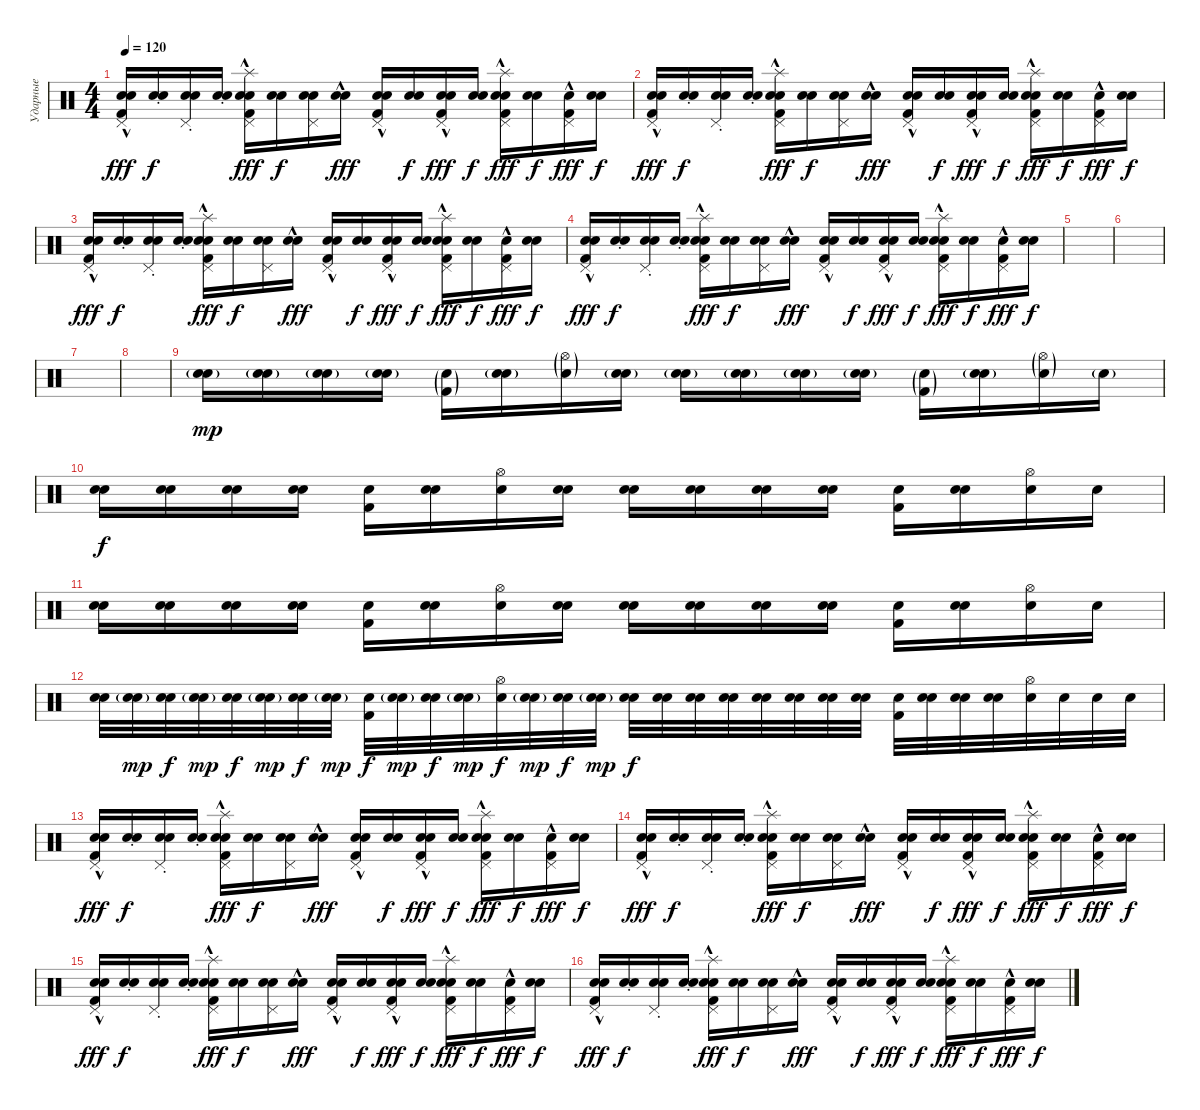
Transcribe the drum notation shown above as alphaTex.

\track ("Ударные" "Ударные") {instrument percussion}
\staff {score}
\articulation defaults
\ts (4 4)
\tempo 120
\clef neutral
\ks c
("Electric Snare (hit)" "Pedal Hi-Hat (hit)"{hac} "Snare (hit) 2"{hac} "Kick (hit) 2"{hac}).16{dy fff} ("Electric Snare (hit)"{st} "Snare (hit)").16{dy f} ("Electric Snare (hit)"{st} "Pedal Hi-Hat (hit)" "Snare (hit)").16 ("Electric Snare (hit)"{st} "Snare (hit)").16 ("Electric Snare (hit)" "Splash (hit)" "Pedal Hi-Hat (hit)" "Snare (hit) 2"{hac} "Kick (hit) 2"{hac}).16{dy fff} ("Electric Snare (hit)" "Snare (hit)").16{dy f} ("Electric Snare (hit)" "Pedal Hi-Hat (hit)" "Snare (hit)").16 ("Electric Snare (hit)" "Snare (hit)"{hac}).16{dy fff} ("Electric Snare (hit)" "Pedal Hi-Hat (hit)" "Snare (hit) 2"{hac} "Kick (hit) 2"{hac}).16 ("Electric Snare (hit)" "Snare (hit)").16{dy f} ("Electric Snare (hit)" "Electric Snare (hit)" "Pedal Hi-Hat (hit)" "Kick (hit) 2"{hac}).16{dy fff} ("Electric Snare (hit)" "Snare (hit)").16{dy f} ("Electric Snare (hit)" "Splash (hit)"{hac} "Pedal Hi-Hat (hit)" "Snare (hit) 2"{hac} "Kick (hit) 2"{hac}).16{dy fff} ("Electric Snare (hit)" "Snare (hit)").16{dy f} ("Electric Snare (hit)" "Pedal Hi-Hat (hit)"{hac} "Kick (hit) 2"{hac}).16{dy fff} ("Electric Snare (hit)" "Snare (hit)").16{dy f} |
("Electric Snare (hit)" "Pedal Hi-Hat (hit)"{hac} "Snare (hit) 2"{hac} "Kick (hit) 2"{hac}).16{dy fff} ("Electric Snare (hit)"{st} "Snare (hit)").16{dy f} ("Electric Snare (hit)"{st} "Pedal Hi-Hat (hit)" "Snare (hit)").16 ("Electric Snare (hit)"{st} "Snare (hit)").16 ("Electric Snare (hit)" "Splash (hit)" "Pedal Hi-Hat (hit)" "Snare (hit) 2"{hac} "Kick (hit) 2"{hac}).16{dy fff} ("Electric Snare (hit)" "Snare (hit)").16{dy f} ("Electric Snare (hit)" "Pedal Hi-Hat (hit)" "Snare (hit)").16 ("Electric Snare (hit)" "Snare (hit)"{hac}).16{dy fff} ("Electric Snare (hit)" "Pedal Hi-Hat (hit)"{hac} "Snare (hit) 2"{hac} "Kick (hit) 2"{hac}).16 ("Electric Snare (hit)" "Snare (hit)").16{dy f} ("Electric Snare (hit)" "Electric Snare (hit)"{hac} "Pedal Hi-Hat (hit)"{hac} "Kick (hit) 2"{hac}).16{dy fff} ("Electric Snare (hit)" "Snare (hit)").16{dy f} ("Electric Snare (hit)" "Splash (hit)" "Pedal Hi-Hat (hit)"{hac} "Snare (hit) 2"{hac} "Kick (hit) 2"{hac}).16{dy fff} ("Electric Snare (hit)" "Snare (hit)").16{dy f} ("Electric Snare (hit)" "Pedal Hi-Hat (hit)"{hac} "Kick (hit) 2"{hac}).16{dy fff} ("Electric Snare (hit)" "Snare (hit)").16{dy f} |
("Electric Snare (hit)" "Pedal Hi-Hat (hit)"{hac} "Snare (hit) 2"{hac} "Kick (hit) 2"{hac}).16{dy fff} ("Electric Snare (hit)"{st} "Snare (hit)").16{dy f} ("Electric Snare (hit)"{st} "Pedal Hi-Hat (hit)" "Snare (hit)").16 ("Electric Snare (hit)"{st} "Snare (hit)").16 ("Electric Snare (hit)" "Splash (hit)" "Pedal Hi-Hat (hit)" "Snare (hit) 2"{hac} "Kick (hit) 2"{hac}).16{dy fff} ("Electric Snare (hit)" "Snare (hit)").16{dy f} ("Electric Snare (hit)" "Pedal Hi-Hat (hit)" "Snare (hit)").16 ("Electric Snare (hit)" "Snare (hit)"{hac}).16{dy fff} ("Electric Snare (hit)" "Pedal Hi-Hat (hit)" "Snare (hit) 2"{hac} "Kick (hit) 2"{hac}).16 ("Electric Snare (hit)" "Snare (hit)").16{dy f} ("Electric Snare (hit)" "Electric Snare (hit)" "Pedal Hi-Hat (hit)" "Kick (hit) 2"{hac}).16{dy fff} ("Electric Snare (hit)" "Snare (hit)").16{dy f} ("Electric Snare (hit)" "Splash (hit)"{hac} "Pedal Hi-Hat (hit)" "Snare (hit) 2"{hac} "Kick (hit) 2"{hac}).16{dy fff} ("Electric Snare (hit)" "Snare (hit)").16{dy f} ("Electric Snare (hit)" "Pedal Hi-Hat (hit)"{hac} "Kick (hit) 2"{hac}).16{dy fff} ("Electric Snare (hit)" "Snare (hit)").16{dy f} |
("Electric Snare (hit)" "Pedal Hi-Hat (hit)"{hac} "Snare (hit) 2"{hac} "Kick (hit) 2"{hac}).16{dy fff} ("Electric Snare (hit)"{st} "Snare (hit)").16{dy f} ("Electric Snare (hit)"{st} "Pedal Hi-Hat (hit)" "Snare (hit)").16 ("Electric Snare (hit)"{st} "Snare (hit)").16 ("Electric Snare (hit)" "Splash (hit)" "Pedal Hi-Hat (hit)" "Snare (hit) 2"{hac} "Kick (hit) 2"{hac}).16{dy fff} ("Electric Snare (hit)" "Snare (hit)").16{dy f} ("Electric Snare (hit)" "Pedal Hi-Hat (hit)" "Snare (hit)").16 ("Electric Snare (hit)" "Snare (hit)"{hac}).16{dy fff} ("Electric Snare (hit)" "Pedal Hi-Hat (hit)"{hac} "Snare (hit) 2"{hac} "Kick (hit) 2"{hac}).16 ("Electric Snare (hit)" "Snare (hit)").16{dy f} ("Electric Snare (hit)" "Electric Snare (hit)"{hac} "Pedal Hi-Hat (hit)"{hac} "Kick (hit) 2"{hac}).16{dy fff} ("Electric Snare (hit)" "Snare (hit)").16{dy f} ("Electric Snare (hit)" "Splash (hit)" "Pedal Hi-Hat (hit)"{hac} "Snare (hit) 2"{hac} "Kick (hit) 2"{hac}).16{dy fff} ("Electric Snare (hit)" "Snare (hit)").16{dy f} ("Electric Snare (hit)" "Pedal Hi-Hat (hit)"{hac} "Kick (hit) 2"{hac}).16{dy fff} ("Electric Snare (hit)" "Snare (hit)").16{dy f} |
|
|
|
|
("Electric Snare (hit)"{g} "Snare (hit) 2"{g}).16{dy mp} ("Electric Snare (hit)"{g} "Snare (hit)"{g}).16 ("Electric Snare (hit)"{g} "Snare (hit)"{g}).16 ("Electric Snare (hit)"{g} "Snare (hit)"{g}).16 ("Electric Snare (hit)"{g} "Kick (hit) 2"{g}).16 ("Electric Snare (hit)"{g} "Snare (hit)"{g}).16 ("Electric Snare (hit)"{g} "Hi-Hat (open)"{g}).16 ("Electric Snare (hit)"{g} "Snare (hit)"{g}).16 ("Electric Snare (hit)"{g} "Snare (hit) 2"{g}).16 ("Electric Snare (hit)"{g} "Snare (hit)"{g}).16 ("Electric Snare (hit)"{g} "Snare (hit)"{g}).16 ("Electric Snare (hit)"{g} "Snare (hit)"{g}).16 ("Electric Snare (hit)"{g} "Kick (hit) 2"{g}).16 ("Electric Snare (hit)"{g} "Snare (hit)"{g}).16 ("Electric Snare (hit)"{g} "Hi-Hat (open)"{g}).16 "Electric Snare (hit)"{g}.16 |
("Electric Snare (hit)" "Snare (hit) 2").16{dy f} ("Electric Snare (hit)" "Snare (hit)").16 ("Electric Snare (hit)" "Snare (hit)").16 ("Electric Snare (hit)" "Snare (hit)").16 ("Electric Snare (hit)" "Kick (hit) 2").16 ("Electric Snare (hit)" "Snare (hit)").16 ("Electric Snare (hit)" "Hi-Hat (open)").16 ("Electric Snare (hit)" "Snare (hit)").16 ("Electric Snare (hit)" "Snare (hit) 2").16 ("Electric Snare (hit)" "Snare (hit)").16 ("Electric Snare (hit)" "Snare (hit)").16 ("Electric Snare (hit)" "Snare (hit)").16 ("Electric Snare (hit)" "Kick (hit) 2").16 ("Electric Snare (hit)" "Snare (hit)").16 ("Electric Snare (hit)" "Hi-Hat (open)").16 "Electric Snare (hit)".16 |
("Electric Snare (hit)" "Snare (hit) 2").16 ("Electric Snare (hit)" "Snare (hit)").16 ("Electric Snare (hit)" "Snare (hit)").16 ("Electric Snare (hit)" "Snare (hit)").16 ("Electric Snare (hit)" "Kick (hit) 2").16 ("Electric Snare (hit)" "Snare (hit)").16 ("Electric Snare (hit)" "Hi-Hat (open)").16 ("Electric Snare (hit)" "Snare (hit)").16 ("Electric Snare (hit)" "Snare (hit) 2").16 ("Electric Snare (hit)" "Snare (hit)").16 ("Electric Snare (hit)" "Snare (hit)").16 ("Electric Snare (hit)" "Snare (hit)").16 ("Electric Snare (hit)" "Kick (hit) 2").16 ("Electric Snare (hit)" "Snare (hit)").16 ("Electric Snare (hit)" "Hi-Hat (open)").16 "Electric Snare (hit)".16 |
("Electric Snare (hit)" "Snare (hit) 2").32 ("Electric Snare (hit)"{g} "Snare (hit)").32{dy mp} ("Electric Snare (hit)" "Snare (hit)").32{dy f} ("Electric Snare (hit)"{g} "Snare (hit)").32{dy mp} ("Electric Snare (hit)" "Snare (hit)").32{dy f} ("Electric Snare (hit)"{g} "Snare (hit)").32{dy mp} ("Electric Snare (hit)" "Snare (hit)").32{dy f} ("Electric Snare (hit)"{g} "Snare (hit)").32{dy mp} ("Electric Snare (hit)" "Kick (hit) 2").32{dy f} ("Electric Snare (hit)"{g} "Snare (hit)").32{dy mp} ("Electric Snare (hit)" "Snare (hit)").32{dy f} ("Electric Snare (hit)"{g} "Snare (hit)").32{dy mp} ("Electric Snare (hit)" "Hi-Hat (open)").32{dy f} ("Electric Snare (hit)"{g} "Snare (hit)").32{dy mp} ("Electric Snare (hit)" "Snare (hit)").32{dy f} ("Electric Snare (hit)"{g} "Snare (hit)").32{dy mp} ("Electric Snare (hit)" "Snare (hit) 2").32{dy f} ("Electric Snare (hit)" "Snare (hit)").32 ("Electric Snare (hit)" "Snare (hit)").32 ("Electric Snare (hit)" "Snare (hit)").32 ("Electric Snare (hit)" "Snare (hit)").32 ("Electric Snare (hit)" "Snare (hit)").32 ("Electric Snare (hit)" "Snare (hit)").32 ("Electric Snare (hit)" "Snare (hit)").32 ("Electric Snare (hit)" "Kick (hit) 2").32 ("Electric Snare (hit)" "Snare (hit)").32 ("Electric Snare (hit)" "Snare (hit)").32 ("Electric Snare (hit)" "Snare (hit)").32 ("Electric Snare (hit)" "Hi-Hat (open)").32 "Electric Snare (hit)".32 "Electric Snare (hit)".32 "Electric Snare (hit)".32 |
("Electric Snare (hit)" "Pedal Hi-Hat (hit)"{hac} "Snare (hit) 2"{hac} "Kick (hit) 2"{hac}).16{dy fff} ("Electric Snare (hit)"{st} "Snare (hit)").16{dy f} ("Electric Snare (hit)"{st} "Pedal Hi-Hat (hit)" "Snare (hit)").16 ("Electric Snare (hit)"{st} "Snare (hit)").16 ("Electric Snare (hit)" "Splash (hit)" "Pedal Hi-Hat (hit)" "Snare (hit) 2"{hac} "Kick (hit) 2"{hac}).16{dy fff} ("Electric Snare (hit)" "Snare (hit)").16{dy f} ("Electric Snare (hit)" "Pedal Hi-Hat (hit)" "Snare (hit)").16 ("Electric Snare (hit)" "Snare (hit)"{hac}).16{dy fff} ("Electric Snare (hit)" "Pedal Hi-Hat (hit)" "Snare (hit) 2"{hac} "Kick (hit) 2"{hac}).16 ("Electric Snare (hit)" "Snare (hit)").16{dy f} ("Electric Snare (hit)" "Electric Snare (hit)" "Pedal Hi-Hat (hit)" "Kick (hit) 2"{hac}).16{dy fff} ("Electric Snare (hit)" "Snare (hit)").16{dy f} ("Electric Snare (hit)" "Splash (hit)"{hac} "Pedal Hi-Hat (hit)" "Snare (hit) 2"{hac} "Kick (hit) 2"{hac}).16{dy fff} ("Electric Snare (hit)" "Snare (hit)").16{dy f} ("Electric Snare (hit)" "Pedal Hi-Hat (hit)"{hac} "Kick (hit) 2"{hac}).16{dy fff} ("Electric Snare (hit)" "Snare (hit)").16{dy f} |
("Electric Snare (hit)" "Pedal Hi-Hat (hit)"{hac} "Snare (hit) 2"{hac} "Kick (hit) 2"{hac}).16{dy fff} ("Electric Snare (hit)"{st} "Snare (hit)").16{dy f} ("Electric Snare (hit)"{st} "Pedal Hi-Hat (hit)" "Snare (hit)").16 ("Electric Snare (hit)"{st} "Snare (hit)").16 ("Electric Snare (hit)" "Splash (hit)" "Pedal Hi-Hat (hit)" "Snare (hit) 2"{hac} "Kick (hit) 2"{hac}).16{dy fff} ("Electric Snare (hit)" "Snare (hit)").16{dy f} ("Electric Snare (hit)" "Pedal Hi-Hat (hit)" "Snare (hit)").16 ("Electric Snare (hit)" "Snare (hit)"{hac}).16{dy fff} ("Electric Snare (hit)" "Pedal Hi-Hat (hit)"{hac} "Snare (hit) 2"{hac} "Kick (hit) 2"{hac}).16 ("Electric Snare (hit)" "Snare (hit)").16{dy f} ("Electric Snare (hit)" "Electric Snare (hit)"{hac} "Pedal Hi-Hat (hit)"{hac} "Kick (hit) 2"{hac}).16{dy fff} ("Electric Snare (hit)" "Snare (hit)").16{dy f} ("Electric Snare (hit)" "Splash (hit)" "Pedal Hi-Hat (hit)"{hac} "Snare (hit) 2"{hac} "Kick (hit) 2"{hac}).16{dy fff} ("Electric Snare (hit)" "Snare (hit)").16{dy f} ("Electric Snare (hit)" "Pedal Hi-Hat (hit)"{hac} "Kick (hit) 2"{hac}).16{dy fff} ("Electric Snare (hit)" "Snare (hit)").16{dy f} |
("Electric Snare (hit)" "Pedal Hi-Hat (hit)"{hac} "Snare (hit) 2"{hac} "Kick (hit) 2"{hac}).16{dy fff} ("Electric Snare (hit)"{st} "Snare (hit)").16{dy f} ("Electric Snare (hit)"{st} "Pedal Hi-Hat (hit)" "Snare (hit)").16 ("Electric Snare (hit)"{st} "Snare (hit)").16 ("Electric Snare (hit)" "Splash (hit)" "Pedal Hi-Hat (hit)" "Snare (hit) 2"{hac} "Kick (hit) 2"{hac}).16{dy fff} ("Electric Snare (hit)" "Snare (hit)").16{dy f} ("Electric Snare (hit)" "Pedal Hi-Hat (hit)" "Snare (hit)").16 ("Electric Snare (hit)" "Snare (hit)"{hac}).16{dy fff} ("Electric Snare (hit)" "Pedal Hi-Hat (hit)" "Snare (hit) 2"{hac} "Kick (hit) 2"{hac}).16 ("Electric Snare (hit)" "Snare (hit)").16{dy f} ("Electric Snare (hit)" "Electric Snare (hit)" "Pedal Hi-Hat (hit)" "Kick (hit) 2"{hac}).16{dy fff} ("Electric Snare (hit)" "Snare (hit)").16{dy f} ("Electric Snare (hit)" "Splash (hit)"{hac} "Pedal Hi-Hat (hit)" "Snare (hit) 2"{hac} "Kick (hit) 2"{hac}).16{dy fff} ("Electric Snare (hit)" "Snare (hit)").16{dy f} ("Electric Snare (hit)" "Pedal Hi-Hat (hit)"{hac} "Kick (hit) 2"{hac}).16{dy fff} ("Electric Snare (hit)" "Snare (hit)").16{dy f} |
("Electric Snare (hit)" "Pedal Hi-Hat (hit)"{hac} "Snare (hit) 2"{hac} "Kick (hit) 2"{hac}).16{dy fff} ("Electric Snare (hit)"{st} "Snare (hit)").16{dy f} ("Electric Snare (hit)"{st} "Pedal Hi-Hat (hit)" "Snare (hit)").16 ("Electric Snare (hit)"{st} "Snare (hit)").16 ("Electric Snare (hit)" "Splash (hit)" "Pedal Hi-Hat (hit)" "Snare (hit) 2"{hac} "Kick (hit) 2"{hac}).16{dy fff} ("Electric Snare (hit)" "Snare (hit)").16{dy f} ("Electric Snare (hit)" "Pedal Hi-Hat (hit)" "Snare (hit)").16 ("Electric Snare (hit)" "Snare (hit)"{hac}).16{dy fff} ("Electric Snare (hit)" "Pedal Hi-Hat (hit)"{hac} "Snare (hit) 2"{hac} "Kick (hit) 2"{hac}).16 ("Electric Snare (hit)" "Snare (hit)").16{dy f} ("Electric Snare (hit)" "Electric Snare (hit)"{hac} "Pedal Hi-Hat (hit)"{hac} "Kick (hit) 2"{hac}).16{dy fff} ("Electric Snare (hit)" "Snare (hit)").16{dy f} ("Electric Snare (hit)" "Splash (hit)" "Pedal Hi-Hat (hit)"{hac} "Snare (hit) 2"{hac} "Kick (hit) 2"{hac}).16{dy fff} ("Electric Snare (hit)" "Snare (hit)").16{dy f} ("Electric Snare (hit)" "Pedal Hi-Hat (hit)"{hac} "Kick (hit) 2"{hac}).16{dy fff} ("Electric Snare (hit)" "Snare (hit)").16{dy f}
